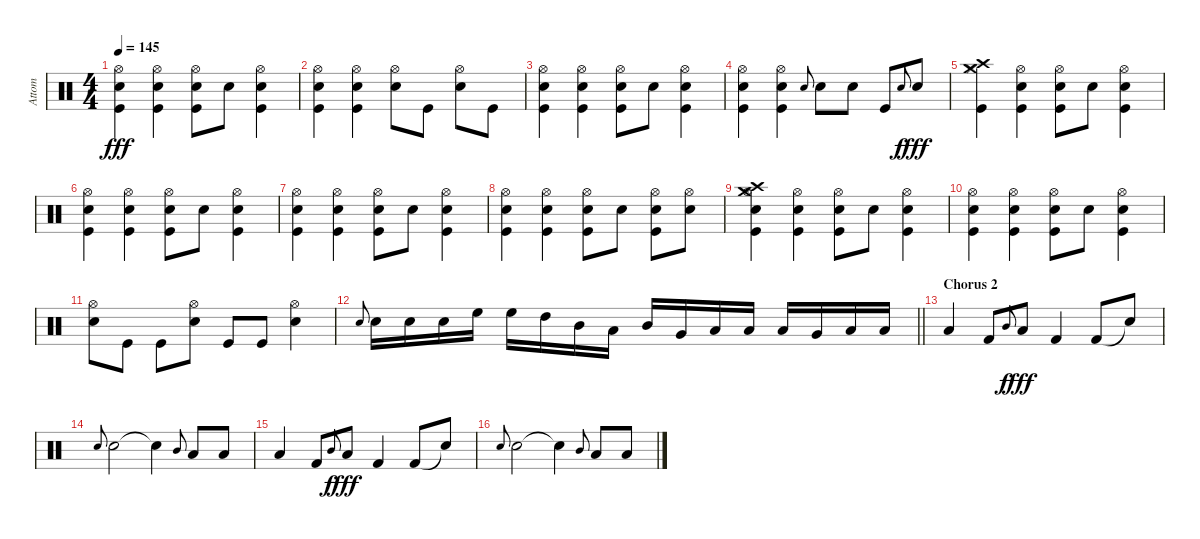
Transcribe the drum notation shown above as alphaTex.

\track ("Attom" "Attom") {instrument percussion}
\staff {score}
\articulation defaults
\ts (4 4)
\tempo 145
\clef neutral
\ks c
("Hi-Hat (open)" "Snare (hit) 2" "Kick (hit)").4{dy fff} ("Hi-Hat (open)" "Snare (hit) 2" "Kick (hit)").4 ("Hi-Hat (open)" "Snare (hit) 2" "Kick (hit)").8 "Snare (hit) 2".8 ("Hi-Hat (open)" "Snare (hit) 2" "Kick (hit)").4 |
("Hi-Hat (open)" "Snare (hit) 2" "Kick (hit)").4 ("Hi-Hat (open)" "Snare (hit) 2" "Kick (hit)").4 ("Hi-Hat (open)" "Snare (hit) 2").8 "Kick (hit)".8 ("Hi-Hat (open)" "Snare (hit) 2").8 "Kick (hit)".8 |
("Hi-Hat (open)" "Snare (hit) 2" "Kick (hit)").4 ("Hi-Hat (open)" "Snare (hit) 2" "Kick (hit)").4 ("Hi-Hat (open)" "Snare (hit) 2" "Kick (hit)").8 "Snare (hit) 2".8 ("Hi-Hat (open)" "Snare (hit) 2" "Kick (hit)").4 |
("Hi-Hat (open)" "Snare (hit) 2" "Kick (hit)").4 ("Hi-Hat (open)" "Snare (hit) 2" "Kick (hit)").4 "Snare (hit) 2".8{gr onbeat} "Snare (hit) 2".8 "Snare (hit) 2".8 "Kick (hit)".8 "Snare (hit) 2".8{gr onbeat dy f} "Snare (hit) 2".8{dy fff} |
("Hi-Hat (closed)" "Crash medium (hit)" "Crash high (hit)" "Kick (hit)").4 ("Hi-Hat (open)" "Snare (hit) 2" "Kick (hit)").4 ("Hi-Hat (open)" "Snare (hit) 2" "Kick (hit)").8 "Snare (hit) 2".8 ("Hi-Hat (open)" "Snare (hit) 2" "Kick (hit)").4 |
("Hi-Hat (open)" "Snare (hit) 2" "Kick (hit)").4 ("Hi-Hat (open)" "Snare (hit) 2" "Kick (hit)").4 ("Hi-Hat (open)" "Snare (hit) 2" "Kick (hit)").8 "Snare (hit) 2".8 ("Hi-Hat (open)" "Snare (hit) 2" "Kick (hit)").4 |
("Hi-Hat (open)" "Snare (hit) 2" "Kick (hit)").4 ("Hi-Hat (open)" "Snare (hit) 2" "Kick (hit)").4 ("Hi-Hat (open)" "Snare (hit) 2" "Kick (hit)").8 "Snare (hit) 2".8 ("Hi-Hat (open)" "Snare (hit) 2" "Kick (hit)").4 |
("Hi-Hat (open)" "Snare (hit) 2" "Kick (hit)").4 ("Hi-Hat (open)" "Snare (hit) 2" "Kick (hit)").4 ("Hi-Hat (open)" "Snare (hit) 2" "Kick (hit)").8 "Snare (hit) 2".8 ("Hi-Hat (open)" "Snare (hit) 2" "Kick (hit)").8 ("Hi-Hat (open)" "Snare (hit) 2").8 |
("Hi-Hat (open)" "Snare (hit) 2" "Crash high (hit)" "Crash medium (hit)" "Kick (hit)").4 ("Hi-Hat (open)" "Snare (hit) 2" "Kick (hit)").4 ("Hi-Hat (open)" "Snare (hit) 2" "Kick (hit)").8 "Snare (hit) 2".8 ("Hi-Hat (open)" "Snare (hit) 2" "Kick (hit)").4 |
("Hi-Hat (open)" "Snare (hit) 2" "Kick (hit)").4 ("Hi-Hat (open)" "Snare (hit) 2" "Kick (hit)").4 ("Hi-Hat (open)" "Snare (hit) 2" "Kick (hit)").8 "Snare (hit) 2".8 ("Hi-Hat (open)" "Snare (hit) 2" "Kick (hit)").4 |
("Hi-Hat (open)" "Snare (hit) 2").8 "Kick (hit)".8 "Kick (hit)".8 ("Hi-Hat (open)" "Snare (hit) 2").8 "Kick (hit)".8 "Kick (hit)".8 ("Snare (hit) 2" "Hi-Hat (open)").4 |
\barLineRight lightlight "Snare (hit) 2".8{gr onbeat} "Snare (hit) 2".16 "Snare (hit) 2".16 "Snare (hit) 2".16 "High Floor Tom (hit)".16 "High Floor Tom (hit)".16 "High Tom (hit)".16 "Mid Tom (hit)".16 "Low Tom (hit)".16 "Mid Tom (hit)".16 "Very Low Tom (hit)".16 "Low Tom (hit)".16 "Low Floor Tom (hit)".16 "Low Tom (hit)".16 "Very Low Tom (hit)".16 "Low Floor Tom (hit)".16 "Low Floor Tom (hit)".16
|
\section ("" "Chorus 2")
"Low Floor Tom (hit)".4 "Kick (hit) 2".8 "Mid Tom (hit)".8{gr onbeat dy f} "Low Floor Tom (hit)".8{dy fff} "Kick (hit) 2".4 "Kick (hit) 2".8 "Snare (hit)"{t}.8 |
"Snare (hit) 2".8{gr onbeat} "Snare (hit) 2".2 "Snare (hit)"{t}.4 "Mid Tom (hit)".8{gr onbeat} "Low Floor Tom (hit)".8 "Low Floor Tom (hit)".8 |
"Low Floor Tom (hit)".4 "Kick (hit) 2".8 "Mid Tom (hit)".8{gr onbeat dy f} "Low Floor Tom (hit)".8{dy fff} "Kick (hit) 2".4 "Kick (hit) 2".8 "Snare (hit)"{t}.8 |
"Snare (hit) 2".8{gr onbeat} "Snare (hit) 2".2 "Snare (hit)"{t}.4 "Mid Tom (hit)".8{gr onbeat} "Low Floor Tom (hit)".8 "Low Floor Tom (hit)".8
